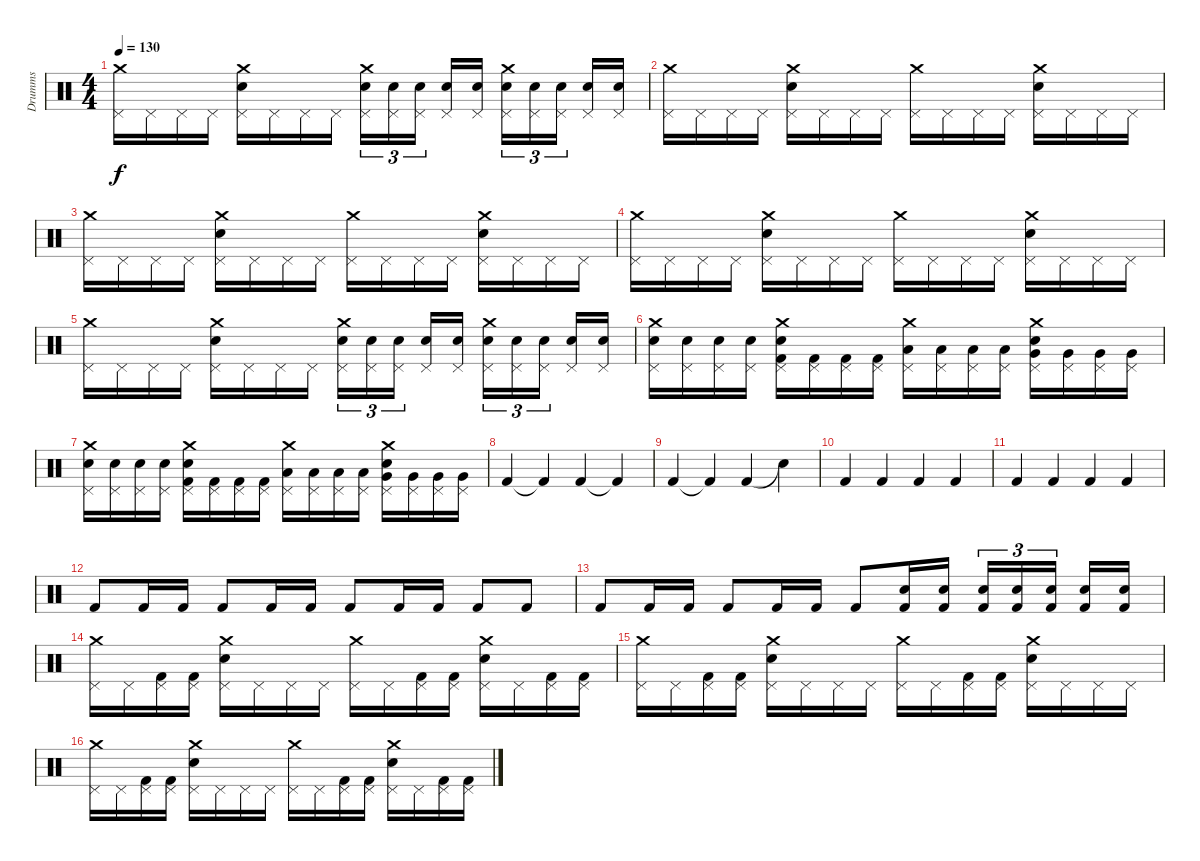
\track ("Drumms" "Drumms") {instrument percussion}
\staff {score}
\articulation defaults
\ts (4 4)
\tempo 130
\clef neutral
\ks c
("Crash medium (hit)" "Pedal Hi-Hat (hit)").16{dy f} "Pedal Hi-Hat (hit)".16 "Pedal Hi-Hat (hit)".16 "Pedal Hi-Hat (hit)".16 ("Crash medium (hit)" "Electric Snare (hit)" "Pedal Hi-Hat (hit)").16 "Pedal Hi-Hat (hit)".16 "Pedal Hi-Hat (hit)".16 "Pedal Hi-Hat (hit)".16 ("Crash medium (hit)" "Snare (hit) 2" "Pedal Hi-Hat (hit)").16{tu (3 2)} ("Snare (hit) 2" "Pedal Hi-Hat (hit)").16{tu (3 2)} ("Snare (hit) 2" "Pedal Hi-Hat (hit)").16{tu (3 2)} ("Snare (hit) 2" "Pedal Hi-Hat (hit)").16 ("Snare (hit) 2" "Pedal Hi-Hat (hit)").16 ("Crash medium (hit)" "Electric Snare (hit)" "Pedal Hi-Hat (hit)").16{tu (3 2)} ("Electric Snare (hit)" "Pedal Hi-Hat (hit)").16{tu (3 2)} ("Electric Snare (hit)" "Pedal Hi-Hat (hit)").16{tu (3 2)} ("Electric Snare (hit)" "Pedal Hi-Hat (hit)").16 ("Electric Snare (hit)" "Pedal Hi-Hat (hit)").16 |
("Crash medium (hit)" "Pedal Hi-Hat (hit)").16 "Pedal Hi-Hat (hit)".16 "Pedal Hi-Hat (hit)".16 "Pedal Hi-Hat (hit)".16 ("Crash medium (hit)" "Electric Snare (hit)" "Pedal Hi-Hat (hit)").16 "Pedal Hi-Hat (hit)".16 "Pedal Hi-Hat (hit)".16 "Pedal Hi-Hat (hit)".16 ("Crash medium (hit)" "Pedal Hi-Hat (hit)").16 "Pedal Hi-Hat (hit)".16 "Pedal Hi-Hat (hit)".16 "Pedal Hi-Hat (hit)".16 ("Crash medium (hit)" "Electric Snare (hit)" "Pedal Hi-Hat (hit)").16 "Pedal Hi-Hat (hit)".16 "Pedal Hi-Hat (hit)".16 "Pedal Hi-Hat (hit)".16 |
("Crash medium (hit)" "Pedal Hi-Hat (hit)").16 "Pedal Hi-Hat (hit)".16 "Pedal Hi-Hat (hit)".16 "Pedal Hi-Hat (hit)".16 ("Crash medium (hit)" "Electric Snare (hit)" "Pedal Hi-Hat (hit)").16 "Pedal Hi-Hat (hit)".16 "Pedal Hi-Hat (hit)".16 "Pedal Hi-Hat (hit)".16 ("Crash medium (hit)" "Pedal Hi-Hat (hit)").16 "Pedal Hi-Hat (hit)".16 "Pedal Hi-Hat (hit)".16 "Pedal Hi-Hat (hit)".16 ("Crash medium (hit)" "Electric Snare (hit)" "Pedal Hi-Hat (hit)").16 "Pedal Hi-Hat (hit)".16 "Pedal Hi-Hat (hit)".16 "Pedal Hi-Hat (hit)".16 |
("Crash medium (hit)" "Pedal Hi-Hat (hit)").16 "Pedal Hi-Hat (hit)".16 "Pedal Hi-Hat (hit)".16 "Pedal Hi-Hat (hit)".16 ("Crash medium (hit)" "Electric Snare (hit)" "Pedal Hi-Hat (hit)").16 "Pedal Hi-Hat (hit)".16 "Pedal Hi-Hat (hit)".16 "Pedal Hi-Hat (hit)".16 ("Crash medium (hit)" "Pedal Hi-Hat (hit)").16 "Pedal Hi-Hat (hit)".16 "Pedal Hi-Hat (hit)".16 "Pedal Hi-Hat (hit)".16 ("Crash medium (hit)" "Electric Snare (hit)" "Pedal Hi-Hat (hit)").16 "Pedal Hi-Hat (hit)".16 "Pedal Hi-Hat (hit)".16 "Pedal Hi-Hat (hit)".16 |
("Crash medium (hit)" "Pedal Hi-Hat (hit)").16 "Pedal Hi-Hat (hit)".16 "Pedal Hi-Hat (hit)".16 "Pedal Hi-Hat (hit)".16 ("Crash medium (hit)" "Electric Snare (hit)" "Pedal Hi-Hat (hit)").16 "Pedal Hi-Hat (hit)".16 "Pedal Hi-Hat (hit)".16 "Pedal Hi-Hat (hit)".16 ("Crash medium (hit)" "Snare (hit) 2" "Pedal Hi-Hat (hit)").16{tu (3 2)} ("Snare (hit) 2" "Pedal Hi-Hat (hit)").16{tu (3 2)} ("Snare (hit) 2" "Pedal Hi-Hat (hit)").16{tu (3 2)} ("Snare (hit) 2" "Pedal Hi-Hat (hit)").16 ("Snare (hit) 2" "Pedal Hi-Hat (hit)").16 ("Crash medium (hit)" "Electric Snare (hit)" "Pedal Hi-Hat (hit)").16{tu (3 2)} ("Electric Snare (hit)" "Pedal Hi-Hat (hit)").16{tu (3 2)} ("Electric Snare (hit)" "Pedal Hi-Hat (hit)").16{tu (3 2)} ("Electric Snare (hit)" "Pedal Hi-Hat (hit)").16 ("Electric Snare (hit)" "Pedal Hi-Hat (hit)").16 |
("Crash medium (hit)" "Snare (hit) 2" "Pedal Hi-Hat (hit)").16{balance 0} ("Snare (hit) 2" "Pedal Hi-Hat (hit)").16 ("Snare (hit) 2" "Pedal Hi-Hat (hit)").16{balance 2} ("Snare (hit) 2" "Pedal Hi-Hat (hit)").16 ("Crash medium (hit)" "Electric Snare (hit)" "Kick (hit) 2" "Pedal Hi-Hat (hit)").16{balance 4} ("Kick (hit) 2" "Pedal Hi-Hat (hit)").16 ("Kick (hit) 2" "Pedal Hi-Hat (hit)").16{balance 6} ("Kick (hit) 2" "Pedal Hi-Hat (hit)").16 ("Crash medium (hit)" "Low Floor Tom (hit)" "Pedal Hi-Hat (hit)").16{balance 8} ("Low Floor Tom (hit)" "Pedal Hi-Hat (hit)").16 ("Low Floor Tom (hit)" "Pedal Hi-Hat (hit)").16{balance 10} ("Low Floor Tom (hit)" "Pedal Hi-Hat (hit)").16 ("Crash medium (hit)" "Electric Snare (hit)" "Very Low Tom (hit)" "Pedal Hi-Hat (hit)").16{balance 12} ("Very Low Tom (hit)" "Pedal Hi-Hat (hit)").16 ("Very Low Tom (hit)" "Pedal Hi-Hat (hit)").16{balance 14} ("Very Low Tom (hit)" "Pedal Hi-Hat (hit)").16 |
("Crash medium (hit)" "Snare (hit) 2" "Pedal Hi-Hat (hit)").16{balance 0} ("Snare (hit) 2" "Pedal Hi-Hat (hit)").16 ("Snare (hit) 2" "Pedal Hi-Hat (hit)").16{balance 2} ("Snare (hit) 2" "Pedal Hi-Hat (hit)").16 ("Crash medium (hit)" "Electric Snare (hit)" "Kick (hit) 2" "Pedal Hi-Hat (hit)").16{balance 4} ("Kick (hit) 2" "Pedal Hi-Hat (hit)").16 ("Kick (hit) 2" "Pedal Hi-Hat (hit)").16{balance 6} ("Kick (hit) 2" "Pedal Hi-Hat (hit)").16 ("Crash medium (hit)" "Low Floor Tom (hit)" "Pedal Hi-Hat (hit)").16{balance 8} ("Low Floor Tom (hit)" "Pedal Hi-Hat (hit)").16 ("Low Floor Tom (hit)" "Pedal Hi-Hat (hit)").16{balance 10} ("Low Floor Tom (hit)" "Pedal Hi-Hat (hit)").16 ("Crash medium (hit)" "Electric Snare (hit)" "Very Low Tom (hit)" "Pedal Hi-Hat (hit)").16{balance 12} ("Very Low Tom (hit)" "Pedal Hi-Hat (hit)").16 ("Very Low Tom (hit)" "Pedal Hi-Hat (hit)").16{balance 14} ("Very Low Tom (hit)" "Pedal Hi-Hat (hit)").16 |
"Kick (hit) 2".4{volume 10 balance 8} "Kick (hit) 2"{t}.4 "Kick (hit) 2".4 "Kick (hit) 2"{t}.4 |
"Kick (hit) 2".4 "Kick (hit) 2"{t}.4 "Kick (hit) 2".4 "Snare (hit)"{t}.4 |
"Kick (hit) 2".4 "Kick (hit) 2".4 "Kick (hit) 2".4 "Kick (hit) 2".4 |
"Kick (hit) 2".4 "Kick (hit) 2".4 "Kick (hit) 2".4 "Kick (hit) 2".4 |
"Kick (hit) 2".8 "Kick (hit) 2".16 "Kick (hit) 2".16 "Kick (hit) 2".8 "Kick (hit) 2".16 "Kick (hit) 2".16 "Kick (hit) 2".8 "Kick (hit) 2".16 "Kick (hit) 2".16 "Kick (hit) 2".8 "Kick (hit) 2".8 |
"Kick (hit) 2".8 "Kick (hit) 2".16 "Kick (hit) 2".16 "Kick (hit) 2".8 "Kick (hit) 2".16 "Kick (hit) 2".16 "Kick (hit) 2".8 ("Snare (hit) 2" "Kick (hit) 2").16 ("Snare (hit) 2" "Kick (hit) 2").16 ("Snare (hit) 2" "Kick (hit) 2").16{tu (3 2)} ("Snare (hit) 2" "Kick (hit) 2").16{tu (3 2)} ("Snare (hit) 2" "Kick (hit) 2").16{tu (3 2)} ("Snare (hit) 2" "Kick (hit) 2").16 ("Snare (hit) 2" "Kick (hit) 2").16 |
("Crash medium (hit)" "Pedal Hi-Hat (hit)").16 "Pedal Hi-Hat (hit)".16 ("Kick (hit) 2" "Pedal Hi-Hat (hit)").16 ("Kick (hit) 2" "Pedal Hi-Hat (hit)").16 ("Crash medium (hit)" "Electric Snare (hit)" "Pedal Hi-Hat (hit)").16 "Pedal Hi-Hat (hit)".16 "Pedal Hi-Hat (hit)".16 "Pedal Hi-Hat (hit)".16 ("Crash medium (hit)" "Pedal Hi-Hat (hit)").16 "Pedal Hi-Hat (hit)".16 ("Kick (hit) 2" "Pedal Hi-Hat (hit)").16 ("Kick (hit) 2" "Pedal Hi-Hat (hit)").16 ("Crash medium (hit)" "Electric Snare (hit)" "Pedal Hi-Hat (hit)").16 "Pedal Hi-Hat (hit)".16 ("Kick (hit) 2" "Pedal Hi-Hat (hit)").16 ("Kick (hit) 2" "Pedal Hi-Hat (hit)").16 |
("Crash medium (hit)" "Pedal Hi-Hat (hit)").16 "Pedal Hi-Hat (hit)".16 ("Kick (hit) 2" "Pedal Hi-Hat (hit)").16 ("Kick (hit) 2" "Pedal Hi-Hat (hit)").16 ("Crash medium (hit)" "Electric Snare (hit)" "Pedal Hi-Hat (hit)").16 "Pedal Hi-Hat (hit)".16 "Pedal Hi-Hat (hit)".16 "Pedal Hi-Hat (hit)".16 ("Crash medium (hit)" "Pedal Hi-Hat (hit)").16 "Pedal Hi-Hat (hit)".16 ("Kick (hit) 2" "Pedal Hi-Hat (hit)").16 ("Kick (hit) 2" "Pedal Hi-Hat (hit)").16 ("Crash medium (hit)" "Electric Snare (hit)" "Pedal Hi-Hat (hit)").16 "Pedal Hi-Hat (hit)".16 "Pedal Hi-Hat (hit)".16 "Pedal Hi-Hat (hit)".16 |
("Crash medium (hit)" "Pedal Hi-Hat (hit)").16 "Pedal Hi-Hat (hit)".16 ("Kick (hit) 2" "Pedal Hi-Hat (hit)").16 ("Kick (hit) 2" "Pedal Hi-Hat (hit)").16 ("Crash medium (hit)" "Electric Snare (hit)" "Pedal Hi-Hat (hit)").16 "Pedal Hi-Hat (hit)".16 "Pedal Hi-Hat (hit)".16 "Pedal Hi-Hat (hit)".16 ("Crash medium (hit)" "Pedal Hi-Hat (hit)").16 "Pedal Hi-Hat (hit)".16 ("Kick (hit) 2" "Pedal Hi-Hat (hit)").16 ("Kick (hit) 2" "Pedal Hi-Hat (hit)").16 ("Crash medium (hit)" "Electric Snare (hit)" "Pedal Hi-Hat (hit)").16 "Pedal Hi-Hat (hit)".16 ("Kick (hit) 2" "Pedal Hi-Hat (hit)").16 ("Kick (hit) 2" "Pedal Hi-Hat (hit)").16
